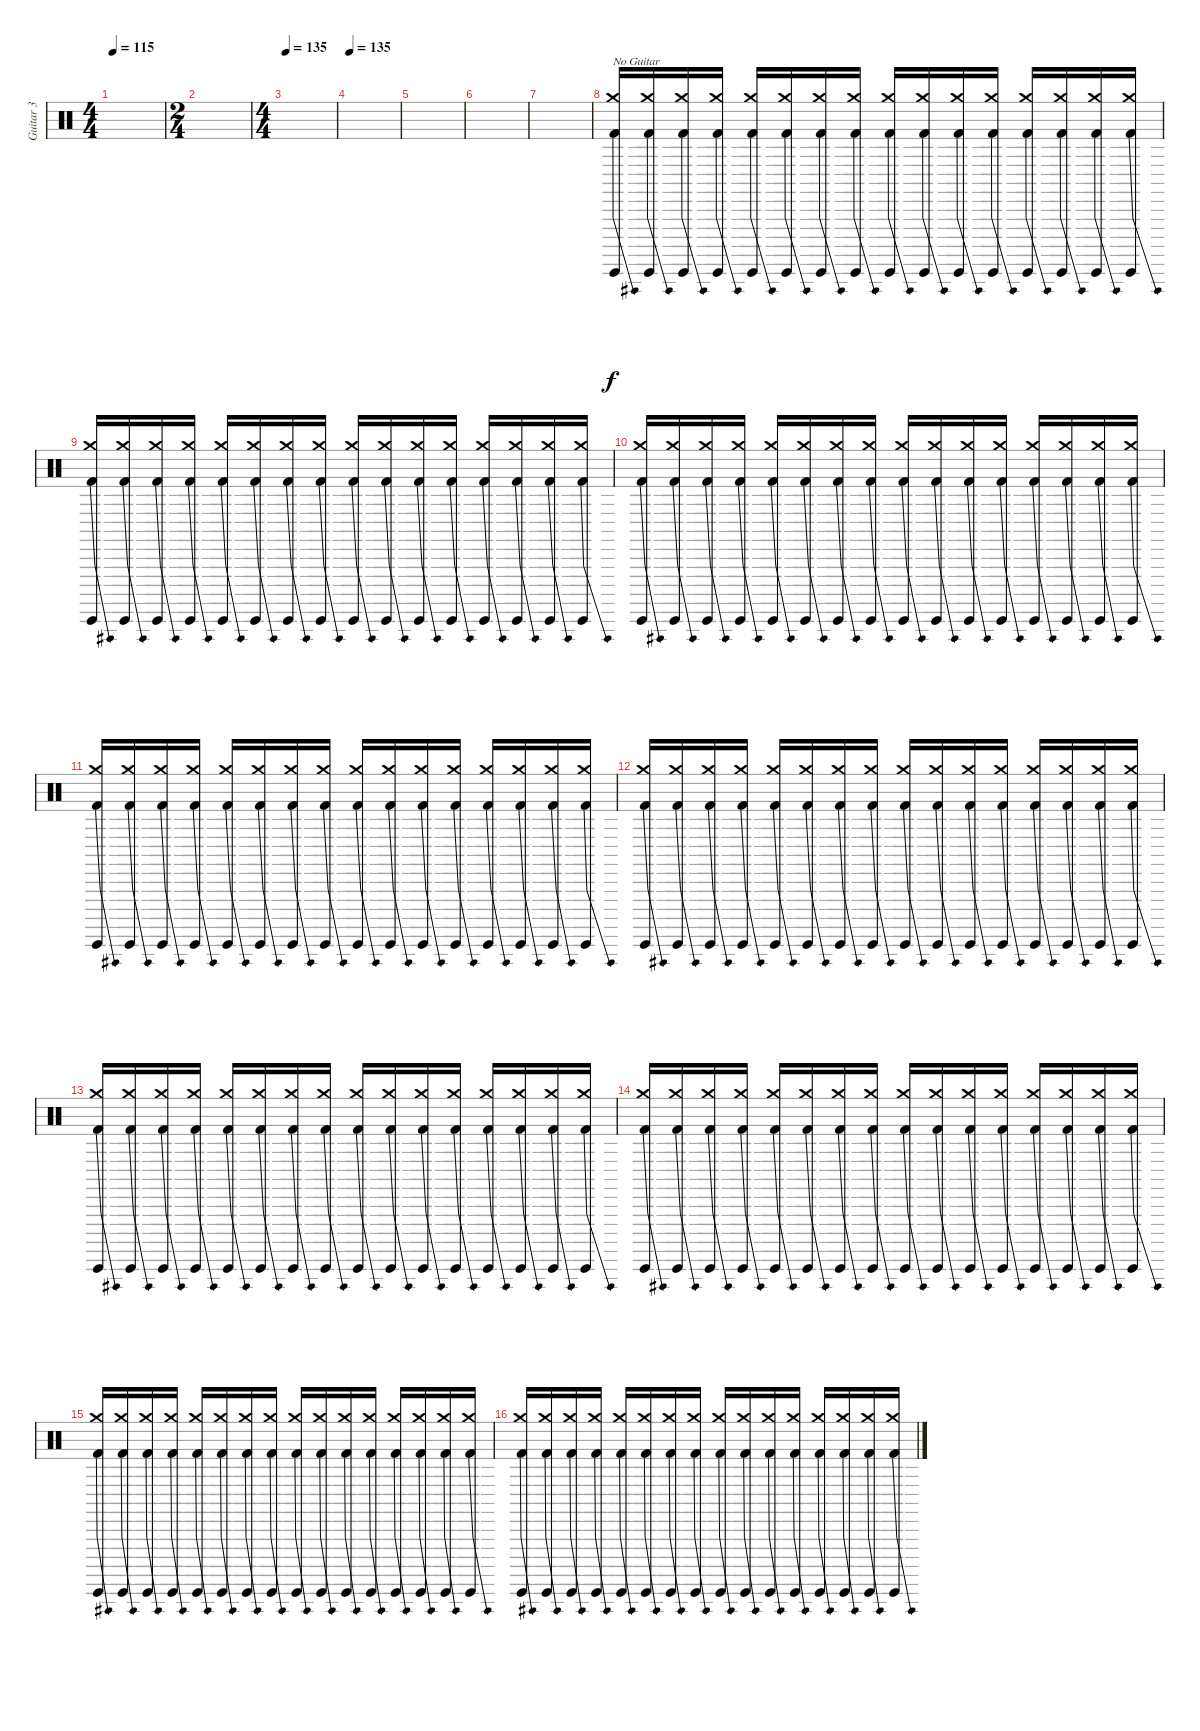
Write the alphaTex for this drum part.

\track ("Guitar 3" "Guitar 3") {instrument percussion}
\staff {score}
\articulation defaults
\ts (4 4)
\tempo 115
\clef neutral
\ks c
|
\ts (2 4)
|
\ts (4 4)
\tempo 135
|
\tempo 135
|
|
|
|
("Kick (hit) 2"{be (bend 0 0 60 12)} "Crash medium (hit)" "Guiro (hit)").16{txt "No Guitar" volume 2 balance 8} ("Kick (hit) 2"{be (bend 0 0 60 12)} "Crash medium (hit)" "Guiro (hit)").16 ("Kick (hit) 2"{be (bend 0 0 60 12)} "Crash medium (hit)" "Guiro (hit)").16 ("Kick (hit) 2"{be (bend 0 0 60 12)} "Crash medium (hit)" "Guiro (hit)").16 ("Kick (hit) 2"{be (bend 0 0 60 12)} "Crash medium (hit)" "Guiro (hit)").16 ("Kick (hit) 2"{be (bend 0 0 60 12)} "Crash medium (hit)" "Guiro (hit)").16 ("Kick (hit) 2"{be (bend 0 0 60 12)} "Crash medium (hit)" "Guiro (hit)").16 ("Kick (hit) 2"{be (bend 0 0 60 12)} "Crash medium (hit)" "Guiro (hit)").16 ("Kick (hit) 2"{be (bend 0 0 60 12)} "Crash medium (hit)" "Guiro (hit)").16 ("Kick (hit) 2"{be (bend 0 0 60 12)} "Crash medium (hit)" "Guiro (hit)").16 ("Kick (hit) 2"{be (bend 0 0 60 12)} "Crash medium (hit)" "Guiro (hit)").16 ("Kick (hit) 2"{be (bend 0 0 60 12)} "Crash medium (hit)" "Guiro (hit)").16 ("Kick (hit) 2"{be (bend 0 0 60 12)} "Crash medium (hit)" "Guiro (hit)").16 ("Kick (hit) 2"{be (bend 0 0 60 12)} "Crash medium (hit)" "Guiro (hit)").16 ("Kick (hit) 2"{be (bend 0 0 60 12)} "Crash medium (hit)" "Guiro (hit)").16 ("Kick (hit) 2"{be (bend 0 0 60 12)} "Crash medium (hit)" "Guiro (hit)").16 |
("Kick (hit) 2"{be (bend 0 0 60 12)} "Crash medium (hit)" "Guiro (hit)").16 ("Kick (hit) 2"{be (bend 0 0 60 12)} "Crash medium (hit)" "Guiro (hit)").16 ("Kick (hit) 2"{be (bend 0 0 60 12)} "Crash medium (hit)" "Guiro (hit)").16 ("Kick (hit) 2"{be (bend 0 0 60 12)} "Crash medium (hit)" "Guiro (hit)").16 ("Kick (hit) 2"{be (bend 0 0 60 12)} "Crash medium (hit)" "Guiro (hit)").16 ("Kick (hit) 2"{be (bend 0 0 60 12)} "Crash medium (hit)" "Guiro (hit)").16 ("Kick (hit) 2"{be (bend 0 0 60 12)} "Crash medium (hit)" "Guiro (hit)").16 ("Kick (hit) 2"{be (bend 0 0 60 12)} "Crash medium (hit)" "Guiro (hit)").16 ("Kick (hit) 2"{be (bend 0 0 60 12)} "Crash medium (hit)" "Guiro (hit)").16 ("Kick (hit) 2"{be (bend 0 0 60 12)} "Crash medium (hit)" "Guiro (hit)").16 ("Kick (hit) 2"{be (bend 0 0 60 12)} "Crash medium (hit)" "Guiro (hit)").16 ("Kick (hit) 2"{be (bend 0 0 60 12)} "Crash medium (hit)" "Guiro (hit)").16 ("Kick (hit) 2"{be (bend 0 0 60 12)} "Crash medium (hit)" "Guiro (hit)").16 ("Kick (hit) 2"{be (bend 0 0 60 12)} "Crash medium (hit)" "Guiro (hit)").16 ("Kick (hit) 2"{be (bend 0 0 60 12)} "Crash medium (hit)" "Guiro (hit)").16 ("Kick (hit) 2"{be (bend 0 0 60 12)} "Crash medium (hit)" "Guiro (hit)").16 |
("Kick (hit) 2"{be (bend 0 0 60 12)} "Crash medium (hit)" "Guiro (hit)").16 ("Kick (hit) 2"{be (bend 0 0 60 12)} "Crash medium (hit)" "Guiro (hit)").16 ("Kick (hit) 2"{be (bend 0 0 60 12)} "Crash medium (hit)" "Guiro (hit)").16 ("Kick (hit) 2"{be (bend 0 0 60 12)} "Crash medium (hit)" "Guiro (hit)").16 ("Kick (hit) 2"{be (bend 0 0 60 12)} "Crash medium (hit)" "Guiro (hit)").16 ("Kick (hit) 2"{be (bend 0 0 60 12)} "Crash medium (hit)" "Guiro (hit)").16 ("Kick (hit) 2"{be (bend 0 0 60 12)} "Crash medium (hit)" "Guiro (hit)").16 ("Kick (hit) 2"{be (bend 0 0 60 12)} "Crash medium (hit)" "Guiro (hit)").16 ("Kick (hit) 2"{be (bend 0 0 60 12)} "Crash medium (hit)" "Guiro (hit)").16 ("Kick (hit) 2"{be (bend 0 0 60 12)} "Crash medium (hit)" "Guiro (hit)").16 ("Kick (hit) 2"{be (bend 0 0 60 12)} "Crash medium (hit)" "Guiro (hit)").16 ("Kick (hit) 2"{be (bend 0 0 60 12)} "Crash medium (hit)" "Guiro (hit)").16 ("Kick (hit) 2"{be (bend 0 0 60 12)} "Crash medium (hit)" "Guiro (hit)").16 ("Kick (hit) 2"{be (bend 0 0 60 12)} "Crash medium (hit)" "Guiro (hit)").16 ("Kick (hit) 2"{be (bend 0 0 60 12)} "Crash medium (hit)" "Guiro (hit)").16 ("Kick (hit) 2"{be (bend 0 0 60 12)} "Crash medium (hit)" "Guiro (hit)").16 |
("Kick (hit) 2"{be (bend 0 0 60 12)} "Crash medium (hit)" "Guiro (hit)").16 ("Kick (hit) 2"{be (bend 0 0 60 12)} "Crash medium (hit)" "Guiro (hit)").16 ("Kick (hit) 2"{be (bend 0 0 60 12)} "Crash medium (hit)" "Guiro (hit)").16 ("Kick (hit) 2"{be (bend 0 0 60 12)} "Crash medium (hit)" "Guiro (hit)").16 ("Kick (hit) 2"{be (bend 0 0 60 12)} "Crash medium (hit)" "Guiro (hit)").16 ("Kick (hit) 2"{be (bend 0 0 60 12)} "Crash medium (hit)" "Guiro (hit)").16 ("Kick (hit) 2"{be (bend 0 0 60 12)} "Crash medium (hit)" "Guiro (hit)").16 ("Kick (hit) 2"{be (bend 0 0 60 12)} "Crash medium (hit)" "Guiro (hit)").16 ("Kick (hit) 2"{be (bend 0 0 60 12)} "Crash medium (hit)" "Guiro (hit)").16 ("Kick (hit) 2"{be (bend 0 0 60 12)} "Crash medium (hit)" "Guiro (hit)").16 ("Kick (hit) 2"{be (bend 0 0 60 12)} "Crash medium (hit)" "Guiro (hit)").16 ("Kick (hit) 2"{be (bend 0 0 60 12)} "Crash medium (hit)" "Guiro (hit)").16 ("Kick (hit) 2"{be (bend 0 0 60 12)} "Crash medium (hit)" "Guiro (hit)").16 ("Kick (hit) 2"{be (bend 0 0 60 12)} "Crash medium (hit)" "Guiro (hit)").16 ("Kick (hit) 2"{be (bend 0 0 60 12)} "Crash medium (hit)" "Guiro (hit)").16 ("Kick (hit) 2"{be (bend 0 0 60 12)} "Crash medium (hit)" "Guiro (hit)").16 |
("Kick (hit) 2"{be (bend 0 0 60 12)} "Crash medium (hit)" "Guiro (hit)").16 ("Kick (hit) 2"{be (bend 0 0 60 12)} "Crash medium (hit)" "Guiro (hit)").16 ("Kick (hit) 2"{be (bend 0 0 60 12)} "Crash medium (hit)" "Guiro (hit)").16 ("Kick (hit) 2"{be (bend 0 0 60 12)} "Crash medium (hit)" "Guiro (hit)").16 ("Kick (hit) 2"{be (bend 0 0 60 12)} "Crash medium (hit)" "Guiro (hit)").16 ("Kick (hit) 2"{be (bend 0 0 60 12)} "Crash medium (hit)" "Guiro (hit)").16 ("Kick (hit) 2"{be (bend 0 0 60 12)} "Crash medium (hit)" "Guiro (hit)").16 ("Kick (hit) 2"{be (bend 0 0 60 12)} "Crash medium (hit)" "Guiro (hit)").16 ("Kick (hit) 2"{be (bend 0 0 60 12)} "Crash medium (hit)" "Guiro (hit)").16 ("Kick (hit) 2"{be (bend 0 0 60 12)} "Crash medium (hit)" "Guiro (hit)").16 ("Kick (hit) 2"{be (bend 0 0 60 12)} "Crash medium (hit)" "Guiro (hit)").16 ("Kick (hit) 2"{be (bend 0 0 60 12)} "Crash medium (hit)" "Guiro (hit)").16 ("Kick (hit) 2"{be (bend 0 0 60 12)} "Crash medium (hit)" "Guiro (hit)").16 ("Kick (hit) 2"{be (bend 0 0 60 12)} "Crash medium (hit)" "Guiro (hit)").16 ("Kick (hit) 2"{be (bend 0 0 60 12)} "Crash medium (hit)" "Guiro (hit)").16 ("Kick (hit) 2"{be (bend 0 0 60 12)} "Crash medium (hit)" "Guiro (hit)").16 |
("Kick (hit) 2"{be (bend 0 0 60 12)} "Crash medium (hit)" "Guiro (hit)").16 ("Kick (hit) 2"{be (bend 0 0 60 12)} "Crash medium (hit)" "Guiro (hit)").16 ("Kick (hit) 2"{be (bend 0 0 60 12)} "Crash medium (hit)" "Guiro (hit)").16 ("Kick (hit) 2"{be (bend 0 0 60 12)} "Crash medium (hit)" "Guiro (hit)").16 ("Kick (hit) 2"{be (bend 0 0 60 12)} "Crash medium (hit)" "Guiro (hit)").16 ("Kick (hit) 2"{be (bend 0 0 60 12)} "Crash medium (hit)" "Guiro (hit)").16 ("Kick (hit) 2"{be (bend 0 0 60 12)} "Crash medium (hit)" "Guiro (hit)").16 ("Kick (hit) 2"{be (bend 0 0 60 12)} "Crash medium (hit)" "Guiro (hit)").16 ("Kick (hit) 2"{be (bend 0 0 60 12)} "Crash medium (hit)" "Guiro (hit)").16 ("Kick (hit) 2"{be (bend 0 0 60 12)} "Crash medium (hit)" "Guiro (hit)").16 ("Kick (hit) 2"{be (bend 0 0 60 12)} "Crash medium (hit)" "Guiro (hit)").16 ("Kick (hit) 2"{be (bend 0 0 60 12)} "Crash medium (hit)" "Guiro (hit)").16 ("Kick (hit) 2"{be (bend 0 0 60 12)} "Crash medium (hit)" "Guiro (hit)").16 ("Kick (hit) 2"{be (bend 0 0 60 12)} "Crash medium (hit)" "Guiro (hit)").16 ("Kick (hit) 2"{be (bend 0 0 60 12)} "Crash medium (hit)" "Guiro (hit)").16 ("Kick (hit) 2"{be (bend 0 0 60 12)} "Crash medium (hit)" "Guiro (hit)").16 |
("Kick (hit) 2"{be (bend 0 0 60 12)} "Crash medium (hit)" "Guiro (hit)").16 ("Kick (hit) 2"{be (bend 0 0 60 12)} "Crash medium (hit)" "Guiro (hit)").16 ("Kick (hit) 2"{be (bend 0 0 60 12)} "Crash medium (hit)" "Guiro (hit)").16 ("Kick (hit) 2"{be (bend 0 0 60 12)} "Crash medium (hit)" "Guiro (hit)").16 ("Kick (hit) 2"{be (bend 0 0 60 12)} "Crash medium (hit)" "Guiro (hit)").16 ("Kick (hit) 2"{be (bend 0 0 60 12)} "Crash medium (hit)" "Guiro (hit)").16 ("Kick (hit) 2"{be (bend 0 0 60 12)} "Crash medium (hit)" "Guiro (hit)").16 ("Kick (hit) 2"{be (bend 0 0 60 12)} "Crash medium (hit)" "Guiro (hit)").16 ("Kick (hit) 2"{be (bend 0 0 60 12)} "Crash medium (hit)" "Guiro (hit)").16 ("Kick (hit) 2"{be (bend 0 0 60 12)} "Crash medium (hit)" "Guiro (hit)").16 ("Kick (hit) 2"{be (bend 0 0 60 12)} "Crash medium (hit)" "Guiro (hit)").16 ("Kick (hit) 2"{be (bend 0 0 60 12)} "Crash medium (hit)" "Guiro (hit)").16 ("Kick (hit) 2"{be (bend 0 0 60 12)} "Crash medium (hit)" "Guiro (hit)").16 ("Kick (hit) 2"{be (bend 0 0 60 12)} "Crash medium (hit)" "Guiro (hit)").16 ("Kick (hit) 2"{be (bend 0 0 60 12)} "Crash medium (hit)" "Guiro (hit)").16 ("Kick (hit) 2"{be (bend 0 0 60 12)} "Crash medium (hit)" "Guiro (hit)").16 |
("Kick (hit) 2"{be (bend 0 0 60 12)} "Crash medium (hit)" "Guiro (hit)").16 ("Kick (hit) 2"{be (bend 0 0 60 12)} "Crash medium (hit)" "Guiro (hit)").16 ("Kick (hit) 2"{be (bend 0 0 60 12)} "Crash medium (hit)" "Guiro (hit)").16 ("Kick (hit) 2"{be (bend 0 0 60 12)} "Crash medium (hit)" "Guiro (hit)").16 ("Kick (hit) 2"{be (bend 0 0 60 12)} "Crash medium (hit)" "Guiro (hit)").16 ("Kick (hit) 2"{be (bend 0 0 60 12)} "Crash medium (hit)" "Guiro (hit)").16 ("Kick (hit) 2"{be (bend 0 0 60 12)} "Crash medium (hit)" "Guiro (hit)").16 ("Kick (hit) 2"{be (bend 0 0 60 12)} "Crash medium (hit)" "Guiro (hit)").16 ("Kick (hit) 2"{be (bend 0 0 60 12)} "Crash medium (hit)" "Guiro (hit)").16 ("Kick (hit) 2"{be (bend 0 0 60 12)} "Crash medium (hit)" "Guiro (hit)").16 ("Kick (hit) 2"{be (bend 0 0 60 12)} "Crash medium (hit)" "Guiro (hit)").16 ("Kick (hit) 2"{be (bend 0 0 60 12)} "Crash medium (hit)" "Guiro (hit)").16 ("Kick (hit) 2"{be (bend 0 0 60 12)} "Crash medium (hit)" "Guiro (hit)").16 ("Kick (hit) 2"{be (bend 0 0 60 12)} "Crash medium (hit)" "Guiro (hit)").16 ("Kick (hit) 2"{be (bend 0 0 60 12)} "Crash medium (hit)" "Guiro (hit)").16 ("Kick (hit) 2"{be (bend 0 0 60 12)} "Crash medium (hit)" "Guiro (hit)").16 |
("Kick (hit) 2"{be (bend 0 0 60 12)} "Crash medium (hit)" "Guiro (hit)").16 ("Kick (hit) 2"{be (bend 0 0 60 12)} "Crash medium (hit)" "Guiro (hit)").16 ("Kick (hit) 2"{be (bend 0 0 60 12)} "Crash medium (hit)" "Guiro (hit)").16 ("Kick (hit) 2"{be (bend 0 0 60 12)} "Crash medium (hit)" "Guiro (hit)").16 ("Kick (hit) 2"{be (bend 0 0 60 12)} "Crash medium (hit)" "Guiro (hit)").16 ("Kick (hit) 2"{be (bend 0 0 60 12)} "Crash medium (hit)" "Guiro (hit)").16 ("Kick (hit) 2"{be (bend 0 0 60 12)} "Crash medium (hit)" "Guiro (hit)").16 ("Kick (hit) 2"{be (bend 0 0 60 12)} "Crash medium (hit)" "Guiro (hit)").16 ("Kick (hit) 2"{be (bend 0 0 60 12)} "Crash medium (hit)" "Guiro (hit)").16 ("Kick (hit) 2"{be (bend 0 0 60 12)} "Crash medium (hit)" "Guiro (hit)").16 ("Kick (hit) 2"{be (bend 0 0 60 12)} "Crash medium (hit)" "Guiro (hit)").16 ("Kick (hit) 2"{be (bend 0 0 60 12)} "Crash medium (hit)" "Guiro (hit)").16 ("Kick (hit) 2"{be (bend 0 0 60 12)} "Crash medium (hit)" "Guiro (hit)").16 ("Kick (hit) 2"{be (bend 0 0 60 12)} "Crash medium (hit)" "Guiro (hit)").16 ("Kick (hit) 2"{be (bend 0 0 60 12)} "Crash medium (hit)" "Guiro (hit)").16 ("Kick (hit) 2"{be (bend 0 0 60 12)} "Crash medium (hit)" "Guiro (hit)").16
